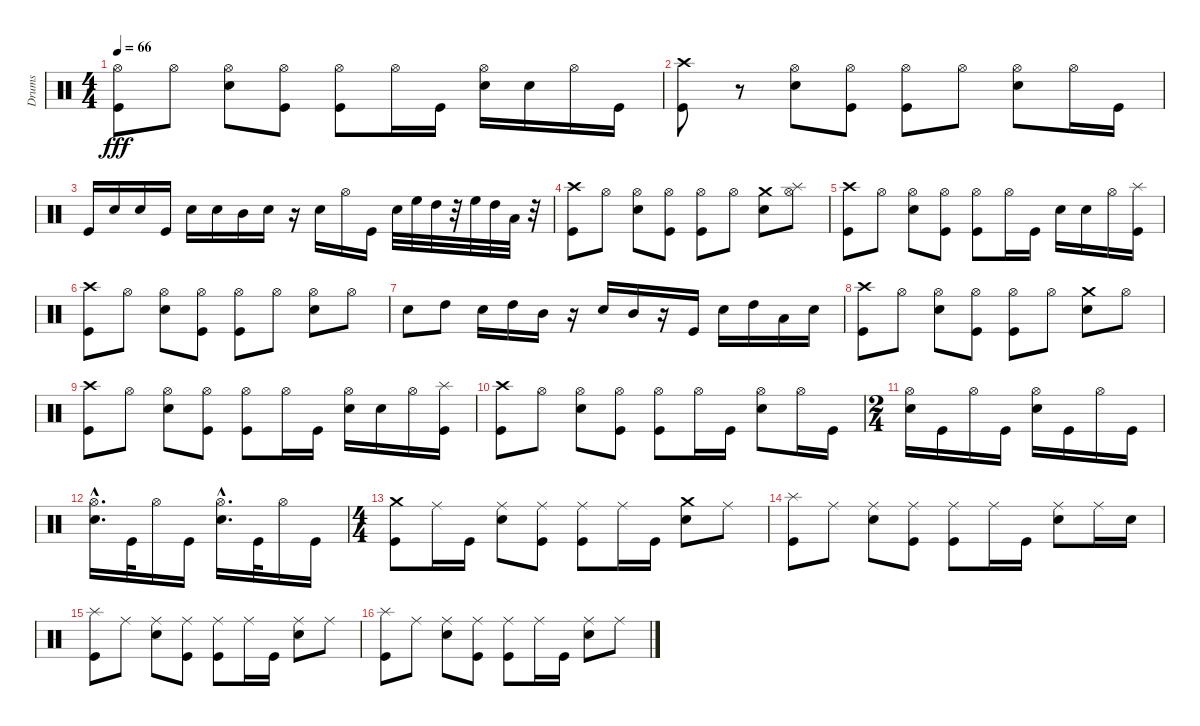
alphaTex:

\track ("Drums" "Drums") {instrument percussion}
\staff {score}
\articulation defaults
\ts (4 4)
\tempo 66
\clef neutral
\ks c
("Hi-Hat (open)" "Kick (hit)").8{dy fff} "Hi-Hat (open)".8 ("Hi-Hat (open)" "Snare (hit) 2").8 ("Hi-Hat (open)" "Kick (hit)").8 ("Hi-Hat (open)" "Kick (hit)").8 "Hi-Hat (open)".16 "Kick (hit)".16 ("Hi-Hat (open)" "Snare (hit) 2").16 "Snare (hit) 2".16 "Hi-Hat (open)".16 "Kick (hit)".16 |
("Crash high (hit)" "Kick (hit)").8 r.8 ("Hi-Hat (open)" "Snare (hit) 2").8 ("Hi-Hat (open)" "Kick (hit)").8 ("Hi-Hat (open)" "Kick (hit)").8 "Hi-Hat (open)".8 ("Hi-Hat (open)" "Snare (hit) 2").8 "Hi-Hat (open)".16 "Kick (hit)".16 |
"Kick (hit)".16 "Snare (hit) 2".16 "Snare (hit) 2".16 "Kick (hit)".16 "Snare (hit) 2".16 "Snare (hit) 2".16 "Mid Tom (hit)".16 "Snare (hit) 2".16 r.16 "Snare (hit) 2".16 "Hi-Hat (open)".16 "Kick (hit)".16 "Snare (hit) 2".32 "High Floor Tom (hit)".32 "High Tom (hit)".32 r.32 "High Floor Tom (hit)".32 "High Tom (hit)".32 "Low Tom (hit)".32 r.32 |
("Crash high (hit)" "Kick (hit)").8 "Hi-Hat (open)".8 ("Hi-Hat (open)" "Snare (hit) 2").8 ("Hi-Hat (open)" "Kick (hit)").8 ("Hi-Hat (open)" "Kick (hit)").8 "Hi-Hat (open)".8 ("Crash medium (hit)" "Snare (hit) 2").8 ("Hi-Hat (open)" "Splash (hit)").8 |
("Crash high (hit)" "Kick (hit)").8 "Hi-Hat (open)".8 ("Hi-Hat (open)" "Snare (hit) 2").8 ("Hi-Hat (open)" "Kick (hit)").8 ("Hi-Hat (open)" "Kick (hit)").8 "Hi-Hat (open)".16 "Kick (hit)".16 "Snare (hit) 2".16 "Snare (hit) 2".16 "Hi-Hat (open)".16 ("Splash (hit)" "Kick (hit)").16 |
("Crash high (hit)" "Kick (hit)").8 "Hi-Hat (open)".8 ("Hi-Hat (open)" "Snare (hit) 2").8 ("Hi-Hat (open)" "Kick (hit)").8 ("Hi-Hat (open)" "Kick (hit)").8 "Hi-Hat (open)".8 ("Hi-Hat (open)" "Snare (hit) 2").8 "Hi-Hat (open)".8 |
"Snare (hit) 2".8 "High Tom (hit)".8 "Snare (hit) 2".16 "High Tom (hit)".16 "Mid Tom (hit)".16 r.16 "Snare (hit) 2".16 "Mid Tom (hit)".16 r.16 "Kick (hit)".16 "Snare (hit) 2".16 "High Tom (hit)".16 "Low Tom (hit)".16 "Snare (hit) 2".16 |
("Crash high (hit)" "Kick (hit)").8 "Hi-Hat (open)".8 ("Hi-Hat (open)" "Snare (hit) 2").8 ("Hi-Hat (open)" "Kick (hit)").8 ("Hi-Hat (open)" "Kick (hit)").8 "Hi-Hat (open)".8 ("Crash medium (hit)" "Snare (hit) 2").8 "Hi-Hat (open)".8 |
("Crash high (hit)" "Kick (hit)").8 "Hi-Hat (open)".8 ("Hi-Hat (open)" "Snare (hit) 2").8 ("Hi-Hat (open)" "Kick (hit)").8 ("Hi-Hat (open)" "Kick (hit)").8 "Hi-Hat (open)".16 "Kick (hit)".16 ("Hi-Hat (open)" "Snare (hit) 2").16 "Snare (hit) 2".16 "Hi-Hat (open)".16 ("Splash (hit)" "Kick (hit)").16 |
("Crash high (hit)" "Kick (hit)").8 "Hi-Hat (open)".8 ("Hi-Hat (open)" "Snare (hit) 2").8 ("Hi-Hat (open)" "Kick (hit)").8 ("Hi-Hat (open)" "Kick (hit)").8 "Hi-Hat (open)".16 "Kick (hit)".16 ("Hi-Hat (open)" "Snare (hit) 2").8 "Hi-Hat (open)".16 "Kick (hit)".16 |
\ts (2 4)
("Hi-Hat (open)" "Snare (hit) 2").16 "Kick (hit)".16 "Hi-Hat (open)".16 "Kick (hit)".16 ("Hi-Hat (open)" "Snare (hit) 2").16 "Kick (hit)".16 "Hi-Hat (open)".16 "Kick (hit)".16 |
("Hi-Hat (open)"{hac} "Snare (hit) 2"{hac}).16{d} "Kick (hit)".32 "Hi-Hat (open)".16 "Kick (hit)".16 ("Hi-Hat (open)"{hac} "Snare (hit) 2"{hac}).16{d} "Kick (hit)".32 "Hi-Hat (open)".16 "Kick (hit)".16 |
\ts (4 4)
("Crash medium (hit)" "Kick (hit)").8 "Ride (middle)".16 "Kick (hit)".16 ("Ride (middle)" "Snare (hit) 2").8 ("Ride (middle)" "Kick (hit)").8 ("Ride (middle)" "Kick (hit)").8 "Ride (middle)".16 "Kick (hit)".16 ("Crash medium (hit)" "Snare (hit) 2").8 "Ride (middle)".8 |
("Splash (hit)" "Kick (hit)").8 "Ride (middle)".8 ("Ride (middle)" "Snare (hit) 2").8 ("Ride (middle)" "Kick (hit)").8 ("Ride (middle)" "Kick (hit)").8 "Ride (middle)".16 "Kick (hit)".16 ("Ride (middle)" "Snare (hit) 2").8 "Ride (middle)".16 "Snare (hit) 2".16 |
("Splash (hit)" "Kick (hit)").8 "Ride (middle)".8 ("Ride (middle)" "Snare (hit) 2").8 ("Ride (middle)" "Kick (hit)").8 ("Ride (middle)" "Kick (hit)").8 "Ride (middle)".16 "Kick (hit)".16 ("Ride (middle)" "Snare (hit) 2").8 "Ride (middle)".8 |
("Splash (hit)" "Kick (hit)").8 "Ride (middle)".8 ("Ride (middle)" "Snare (hit) 2").8 ("Ride (middle)" "Kick (hit)").8 ("Ride (middle)" "Kick (hit)").8 "Ride (middle)".16 "Kick (hit)".16 ("Ride (middle)" "Snare (hit) 2").8 "Ride (middle)".8
